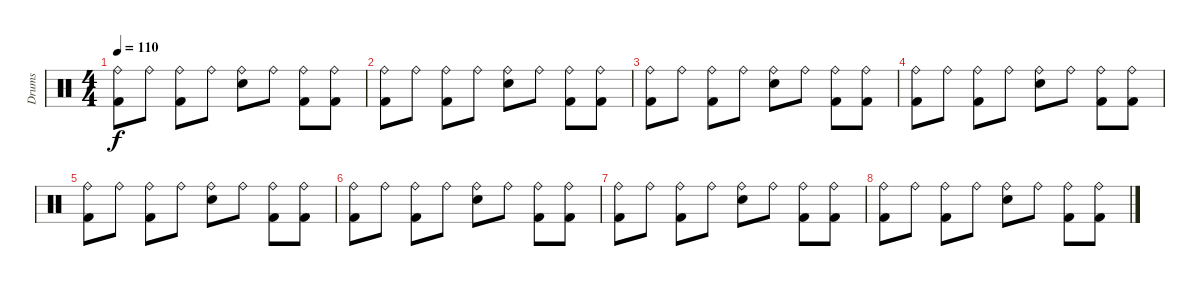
\track ("Drums" "Drums") {instrument percussion}
\staff {score}
\articulation defaults
\ts (4 4)
\tempo 110
\clef neutral
\ks c
("Ride (bell)" "Kick (hit) 2").8{dy f} "Ride (bell)".8 ("Ride (bell)" "Kick (hit) 2").8 "Ride (bell)".8 ("Ride (bell)" "Electric Snare (hit)").8 "Ride (bell)".8 ("Ride (bell)" "Kick (hit) 2").8 ("Ride (bell)" "Kick (hit) 2").8 |
("Ride (bell)" "Kick (hit) 2").8 "Ride (bell)".8 ("Ride (bell)" "Kick (hit) 2").8 "Ride (bell)".8 ("Ride (bell)" "Electric Snare (hit)").8 "Ride (bell)".8 ("Ride (bell)" "Kick (hit) 2").8 ("Ride (bell)" "Kick (hit) 2").8 |
("Ride (bell)" "Kick (hit) 2").8 "Ride (bell)".8 ("Ride (bell)" "Kick (hit) 2").8 "Ride (bell)".8 ("Ride (bell)" "Electric Snare (hit)").8 "Ride (bell)".8 ("Ride (bell)" "Kick (hit) 2").8 ("Ride (bell)" "Kick (hit) 2").8 |
("Ride (bell)" "Kick (hit) 2").8 "Ride (bell)".8 ("Ride (bell)" "Kick (hit) 2").8 "Ride (bell)".8 ("Ride (bell)" "Electric Snare (hit)").8 "Ride (bell)".8 ("Ride (bell)" "Kick (hit) 2").8 ("Ride (bell)" "Kick (hit) 2").8 |
("Ride (bell)" "Kick (hit) 2").8 "Ride (bell)".8 ("Ride (bell)" "Kick (hit) 2").8 "Ride (bell)".8 ("Ride (bell)" "Electric Snare (hit)").8 "Ride (bell)".8 ("Ride (bell)" "Kick (hit) 2").8 ("Ride (bell)" "Kick (hit) 2").8 |
("Ride (bell)" "Kick (hit) 2").8 "Ride (bell)".8 ("Ride (bell)" "Kick (hit) 2").8 "Ride (bell)".8 ("Ride (bell)" "Electric Snare (hit)").8 "Ride (bell)".8 ("Ride (bell)" "Kick (hit) 2").8 ("Ride (bell)" "Kick (hit) 2").8 |
("Ride (bell)" "Kick (hit) 2").8 "Ride (bell)".8 ("Ride (bell)" "Kick (hit) 2").8 "Ride (bell)".8 ("Ride (bell)" "Electric Snare (hit)").8 "Ride (bell)".8 ("Ride (bell)" "Kick (hit) 2").8 ("Ride (bell)" "Kick (hit) 2").8 |
("Ride (bell)" "Kick (hit) 2").8 "Ride (bell)".8 ("Ride (bell)" "Kick (hit) 2").8 "Ride (bell)".8 ("Ride (bell)" "Electric Snare (hit)").8 "Ride (bell)".8 ("Ride (bell)" "Kick (hit) 2").8 ("Ride (bell)" "Kick (hit) 2").8
